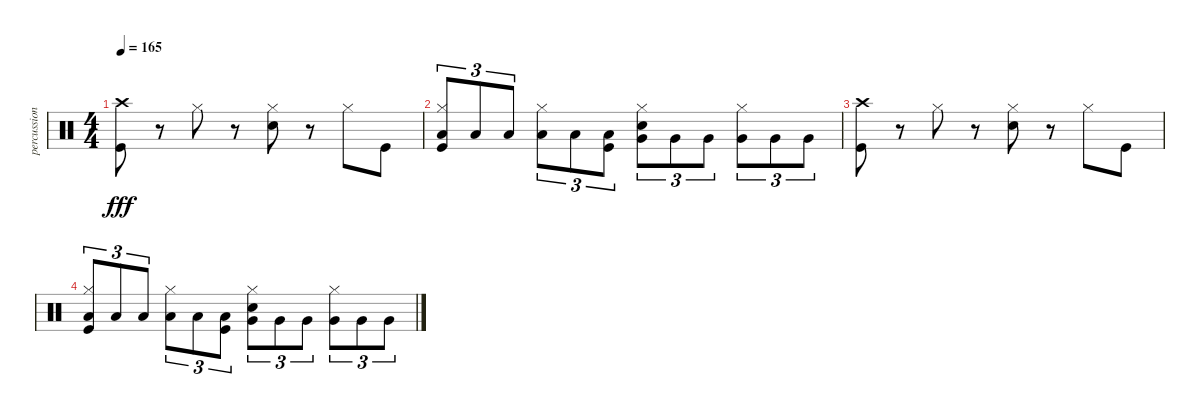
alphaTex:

\track ("percussion (Paice)" "percussion") {instrument percussion}
\staff {score}
\articulation defaults
\ts (4 4)
\tempo 165
\clef neutral
\ks c
("Crash high (hit)" "Kick (hit)").8{dy fff} r.8 "Hi-Hat (closed)".8 r.8 ("Snare (hit) 2" "Hi-Hat (closed)").8 r.8 "Hi-Hat (closed)".8 "Kick (hit)".8 |
("Low Tom (hit)" "Kick (hit)" "Hi-Hat (closed)").8{tu (3 2)} "Low Tom (hit)".8{tu (3 2)} "Low Tom (hit)".8{tu (3 2)} ("Low Tom (hit)" "Hi-Hat (closed)").8{tu (3 2)} "Low Tom (hit)".8{tu (3 2)} ("Kick (hit)" "Low Tom (hit)").8{tu (3 2)} ("Very Low Tom (hit)" "Snare (hit) 2" "Hi-Hat (closed)").8{tu (3 2)} "Very Low Tom (hit)".8{tu (3 2)} "Very Low Tom (hit)".8{tu (3 2)} ("Very Low Tom (hit)" "Hi-Hat (closed)").8{tu (3 2)} "Very Low Tom (hit)".8{tu (3 2)} "Very Low Tom (hit)".8{tu (3 2)} |
("Crash high (hit)" "Kick (hit)").8 r.8 "Hi-Hat (closed)".8 r.8 ("Snare (hit) 2" "Hi-Hat (closed)").8 r.8 "Hi-Hat (closed)".8 "Kick (hit)".8 |
("Low Tom (hit)" "Kick (hit)" "Hi-Hat (closed)").8{tu (3 2)} "Low Tom (hit)".8{tu (3 2)} "Low Tom (hit)".8{tu (3 2)} ("Low Tom (hit)" "Hi-Hat (closed)").8{tu (3 2)} "Low Tom (hit)".8{tu (3 2)} ("Kick (hit)" "Low Tom (hit)").8{tu (3 2)} ("Very Low Tom (hit)" "Snare (hit) 2" "Hi-Hat (closed)").8{tu (3 2)} "Very Low Tom (hit)".8{tu (3 2)} "Very Low Tom (hit)".8{tu (3 2)} ("Very Low Tom (hit)" "Hi-Hat (closed)").8{tu (3 2)} "Very Low Tom (hit)".8{tu (3 2)} "Very Low Tom (hit)".8{tu (3 2)}
